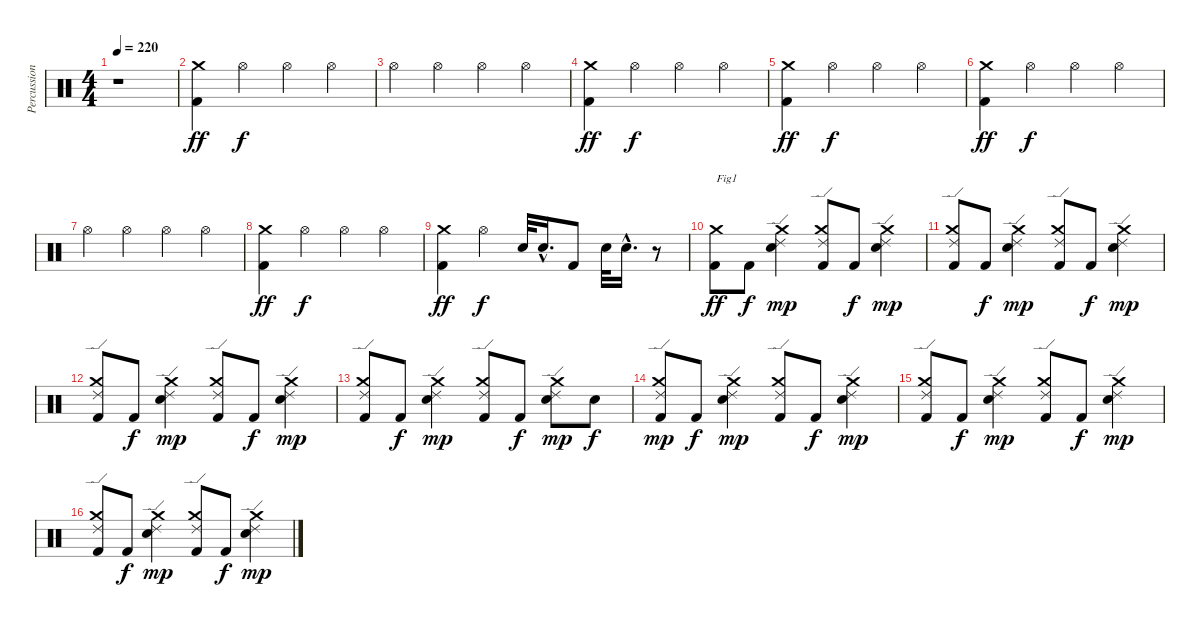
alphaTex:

\track ("Percussions" "Percussion") {instrument percussion}
\staff {score}
\articulation defaults
\ts (4 4)
\tempo 220
\clef neutral
\ks c
r.1{dy ff} |
("Kick (hit) 2" "Crash medium (hit)").4 "Hi-Hat (open)".4{dy f} "Hi-Hat (open)".4 "Hi-Hat (open)".4 |
"Hi-Hat (open)".4 "Hi-Hat (open)".4 "Hi-Hat (open)".4 "Hi-Hat (open)".4 |
("Kick (hit) 2" "Crash medium (hit)").4{dy ff} "Hi-Hat (open)".4{dy f} "Hi-Hat (open)".4 "Hi-Hat (open)".4 |
("Kick (hit) 2" "Crash medium (hit)").4{dy ff} "Hi-Hat (open)".4{dy f} "Hi-Hat (open)".4 "Hi-Hat (open)".4 |
("Kick (hit) 2" "Crash medium (hit)").4{dy ff} "Hi-Hat (open)".4{dy f} "Hi-Hat (open)".4 "Hi-Hat (open)".4 |
"Hi-Hat (open)".4 "Hi-Hat (open)".4 "Hi-Hat (open)".4 "Hi-Hat (open)".4 |
("Kick (hit) 2" "Crash medium (hit)").4{dy ff} "Hi-Hat (open)".4{dy f} "Hi-Hat (open)".4 "Hi-Hat (open)".4 |
("Kick (hit) 2" "Crash medium (hit)").4{dy ff} "Hi-Hat (open)".4{dy f} "Electric Snare (hit)".32 "Electric Snare (hit)"{hac}.16{d} "Kick (hit) 2".8 "Electric Snare (hit)".32 "Electric Snare (hit)"{hac}.16{d} r.8 |
("Kick (hit) 2" "Crash medium (hit)").8{txt "Fig1" dy ff} "Kick (hit) 2".8{dy f} ("Electric Snare (hit)" "Ride (edge) 2" "Crash medium (hit)").4{dy mp} ("Kick (hit) 2" "Ride (edge) 2" "Crash medium (hit)").8 "Kick (hit) 2".8{dy f} ("Electric Snare (hit)" "Ride (edge) 2" "Crash medium (hit)").4{dy mp} |
("Kick (hit) 2" "Ride (edge) 2" "Crash medium (hit)").8 "Kick (hit) 2".8{dy f} ("Electric Snare (hit)" "Ride (edge) 2" "Crash medium (hit)").4{dy mp} ("Kick (hit) 2" "Ride (edge) 2" "Crash medium (hit)").8 "Kick (hit) 2".8{dy f} ("Electric Snare (hit)" "Ride (edge) 2" "Crash medium (hit)").4{dy mp} |
("Kick (hit) 2" "Ride (edge) 2" "Crash medium (hit)").8 "Kick (hit) 2".8{dy f} ("Electric Snare (hit)" "Ride (edge) 2" "Crash medium (hit)").4{dy mp} ("Kick (hit) 2" "Ride (edge) 2" "Crash medium (hit)").8 "Kick (hit) 2".8{dy f} ("Electric Snare (hit)" "Ride (edge) 2" "Crash medium (hit)").4{dy mp} |
("Kick (hit) 2" "Ride (edge) 2" "Crash medium (hit)").8 "Kick (hit) 2".8{dy f} ("Electric Snare (hit)" "Ride (edge) 2" "Crash medium (hit)").4{dy mp} ("Kick (hit) 2" "Ride (edge) 2" "Crash medium (hit)").8 "Kick (hit) 2".8{dy f} ("Electric Snare (hit)" "Ride (edge) 2" "Crash medium (hit)").8{dy mp} "Electric Snare (hit)".8{dy f} |
("Kick (hit) 2" "Ride (edge) 2" "Crash medium (hit)").8{dy mp} "Kick (hit) 2".8{dy f} ("Electric Snare (hit)" "Ride (edge) 2" "Crash medium (hit)").4{dy mp} ("Kick (hit) 2" "Ride (edge) 2" "Crash medium (hit)").8 "Kick (hit) 2".8{dy f} ("Electric Snare (hit)" "Ride (edge) 2" "Crash medium (hit)").4{dy mp} |
("Kick (hit) 2" "Ride (edge) 2" "Crash medium (hit)").8 "Kick (hit) 2".8{dy f} ("Electric Snare (hit)" "Ride (edge) 2" "Crash medium (hit)").4{dy mp} ("Kick (hit) 2" "Ride (edge) 2" "Crash medium (hit)").8 "Kick (hit) 2".8{dy f} ("Electric Snare (hit)" "Ride (edge) 2" "Crash medium (hit)").4{dy mp} |
("Kick (hit) 2" "Ride (edge) 2" "Crash medium (hit)").8 "Kick (hit) 2".8{dy f} ("Electric Snare (hit)" "Ride (edge) 2" "Crash medium (hit)").4{dy mp} ("Kick (hit) 2" "Ride (edge) 2" "Crash medium (hit)").8 "Kick (hit) 2".8{dy f} ("Electric Snare (hit)" "Ride (edge) 2" "Crash medium (hit)").4{dy mp}
